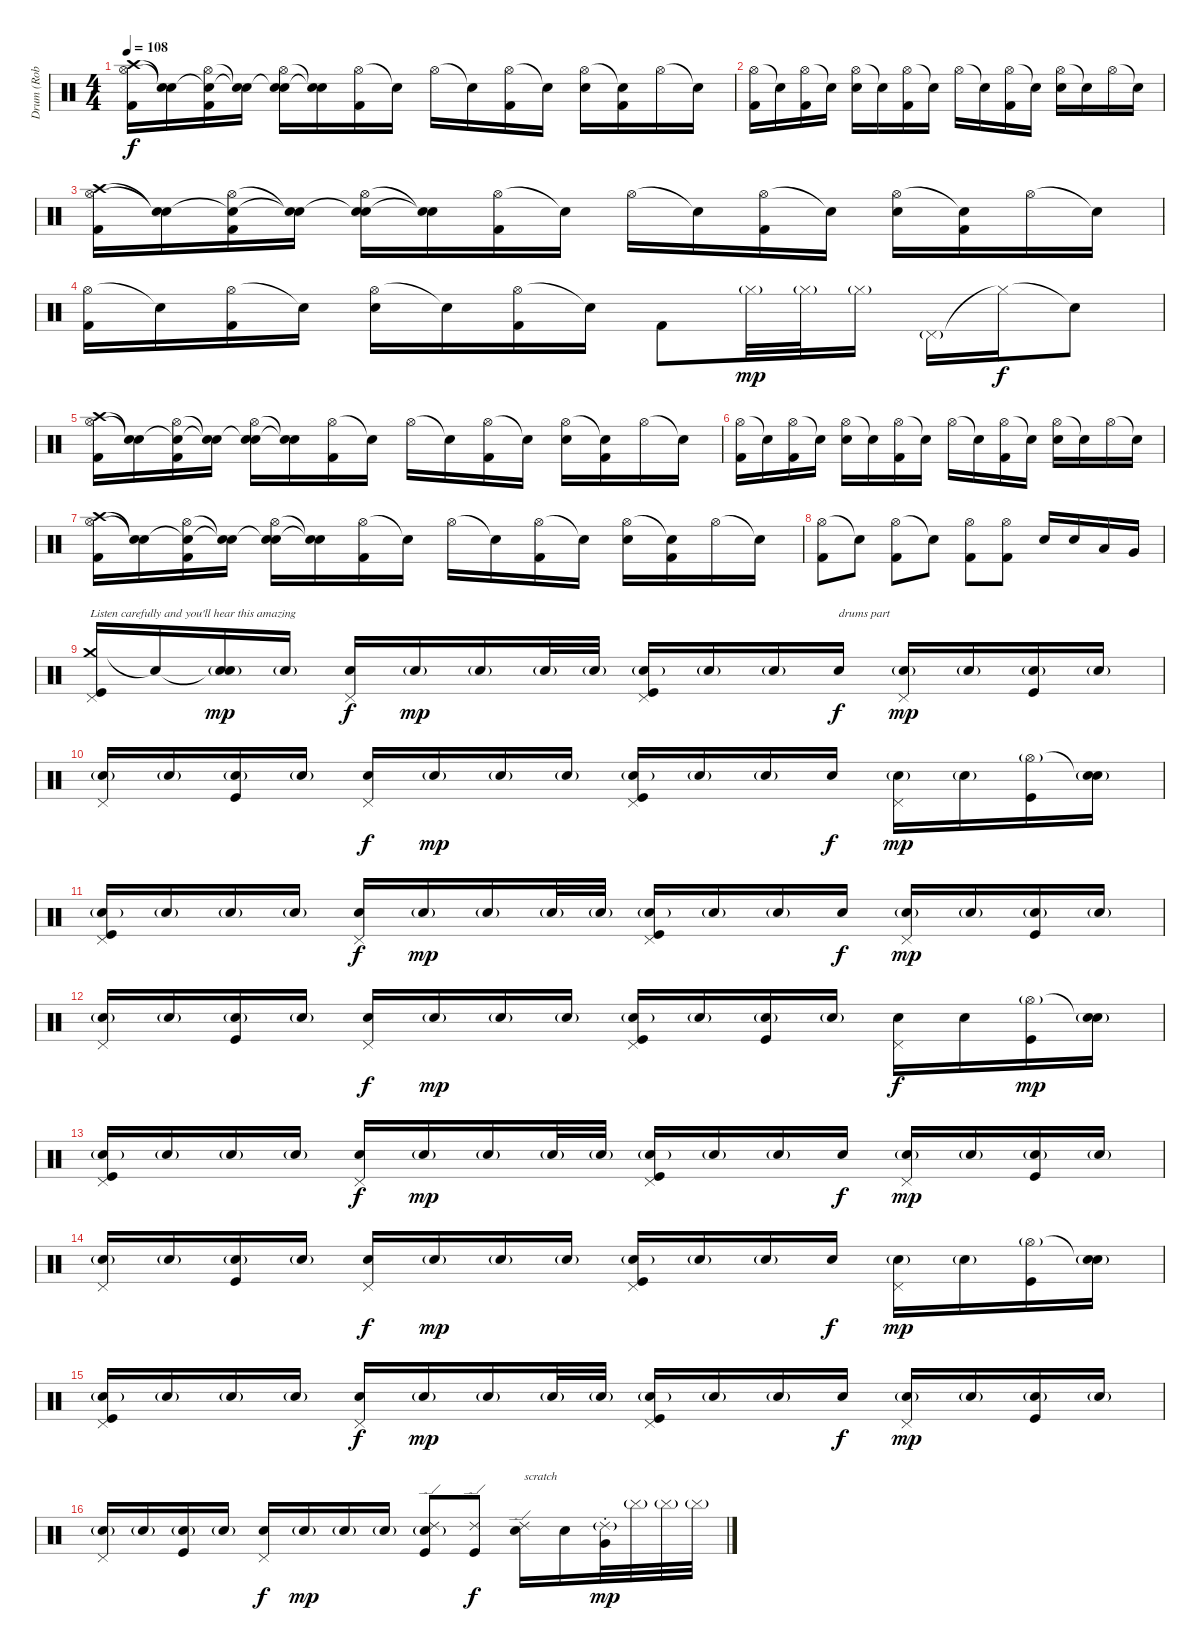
\track ("Drum (Rob Bourdon)" "Drum (Rob ") {instrument percussion}
\staff {score}
\articulation defaults
\ts (4 4)
\tempo 108
\clef neutral
\ks c
("Crash high (hit)" "Hi-Hat (open)" "Kick (hit) 2").16{dy f} ("Snare (hit)"{t} "Snare (hit)"{t}).16 ("Snare (hit)"{t} "Hi-Hat (open)" "Kick (hit) 2").16 ("Snare (hit)"{t} "Snare (hit)"{t}).16 ("Snare (hit)"{t} "Hi-Hat (open)" "Electric Snare (hit)").16 ("Snare (hit)"{t} "Snare (hit)"{t}).16 ("Hi-Hat (open)" "Kick (hit) 2").16 "Snare (hit)"{t}.16 "Hi-Hat (open)".16 "Snare (hit)"{t}.16 ("Hi-Hat (open)" "Kick (hit) 2").16 "Snare (hit)"{t}.16 ("Hi-Hat (open)" "Electric Snare (hit)").16 ("Snare (hit)"{t} "Kick (hit) 2").16 "Hi-Hat (open)".16 "Snare (hit)"{t}.16 |
("Hi-Hat (open)" "Kick (hit) 2").16 "Snare (hit)"{t}.16 ("Hi-Hat (open)" "Kick (hit) 2").16 "Snare (hit)"{t}.16 ("Hi-Hat (open)" "Electric Snare (hit)").16 "Snare (hit)"{t}.16 ("Hi-Hat (open)" "Kick (hit) 2").16 "Snare (hit)"{t}.16 "Hi-Hat (open)".16 "Snare (hit)"{t}.16 ("Hi-Hat (open)" "Kick (hit) 2").16 "Snare (hit)"{t}.16 ("Hi-Hat (open)" "Electric Snare (hit)").16 "Snare (hit)"{t}.16 "Hi-Hat (open)".16 "Snare (hit)"{t}.16 |
("Crash high (hit)" "Hi-Hat (open)" "Kick (hit) 2").16 ("Snare (hit)"{t} "Snare (hit)"{t}).16 ("Snare (hit)"{t} "Hi-Hat (open)" "Kick (hit) 2").16 ("Snare (hit)"{t} "Snare (hit)"{t}).16 ("Snare (hit)"{t} "Hi-Hat (open)" "Electric Snare (hit)").16 ("Snare (hit)"{t} "Snare (hit)"{t}).16 ("Hi-Hat (open)" "Kick (hit) 2").16 "Snare (hit)"{t}.16 "Hi-Hat (open)".16 "Snare (hit)"{t}.16 ("Hi-Hat (open)" "Kick (hit) 2").16 "Snare (hit)"{t}.16 ("Hi-Hat (open)" "Electric Snare (hit)").16 ("Snare (hit)"{t} "Kick (hit) 2").16 "Hi-Hat (open)".16 "Snare (hit)"{t}.16 |
("Hi-Hat (open)" "Kick (hit) 2").16 "Snare (hit)"{t}.16 ("Hi-Hat (open)" "Kick (hit) 2").16 "Snare (hit)"{t}.16 ("Hi-Hat (open)" "Electric Snare (hit)").16 "Snare (hit)"{t}.16 ("Hi-Hat (open)" "Kick (hit) 2").16 "Snare (hit)"{t}.16 "Kick (hit) 2".8 "Hi-Hat (closed)"{g}.32{dy mp} "Hi-Hat (closed)"{g}.32 "Hi-Hat (closed)"{g}.16 "Pedal Hi-Hat (hit)"{g}.16 "Hi-Hat (closed)"{t}.16{dy f} "Snare (hit)"{t}.8 |
("Crash high (hit)" "Hi-Hat (open)" "Kick (hit) 2").16 ("Snare (hit)"{t} "Snare (hit)"{t}).16 ("Snare (hit)"{t} "Hi-Hat (open)" "Kick (hit) 2").16 ("Snare (hit)"{t} "Snare (hit)"{t}).16 ("Snare (hit)"{t} "Hi-Hat (open)" "Electric Snare (hit)").16 ("Snare (hit)"{t} "Snare (hit)"{t}).16 ("Hi-Hat (open)" "Kick (hit) 2").16 "Snare (hit)"{t}.16 "Hi-Hat (open)".16 "Snare (hit)"{t}.16 ("Hi-Hat (open)" "Kick (hit) 2").16 "Snare (hit)"{t}.16 ("Hi-Hat (open)" "Electric Snare (hit)").16 ("Snare (hit)"{t} "Kick (hit) 2").16 "Hi-Hat (open)".16 "Snare (hit)"{t}.16 |
("Hi-Hat (open)" "Kick (hit) 2").16 "Snare (hit)"{t}.16 ("Hi-Hat (open)" "Kick (hit) 2").16 "Snare (hit)"{t}.16 ("Hi-Hat (open)" "Electric Snare (hit)").16 "Snare (hit)"{t}.16 ("Hi-Hat (open)" "Kick (hit) 2").16 "Snare (hit)"{t}.16 "Hi-Hat (open)".16 "Snare (hit)"{t}.16 ("Hi-Hat (open)" "Kick (hit) 2").16 "Snare (hit)"{t}.16 ("Hi-Hat (open)" "Electric Snare (hit)").16 "Snare (hit)"{t}.16 "Hi-Hat (open)".16 "Snare (hit)"{t}.16 |
("Crash high (hit)" "Hi-Hat (open)" "Kick (hit) 2").16 ("Snare (hit)"{t} "Snare (hit)"{t}).16 ("Snare (hit)"{t} "Hi-Hat (open)" "Kick (hit) 2").16 ("Snare (hit)"{t} "Snare (hit)"{t}).16 ("Snare (hit)"{t} "Hi-Hat (open)" "Electric Snare (hit)").16 ("Snare (hit)"{t} "Snare (hit)"{t}).16 ("Hi-Hat (open)" "Kick (hit) 2").16 "Snare (hit)"{t}.16 "Hi-Hat (open)".16 "Snare (hit)"{t}.16 ("Hi-Hat (open)" "Kick (hit) 2").16 "Snare (hit)"{t}.16 ("Hi-Hat (open)" "Electric Snare (hit)").16 ("Snare (hit)"{t} "Kick (hit) 2").16 "Hi-Hat (open)".16 "Snare (hit)"{t}.16 |
("Hi-Hat (open)" "Kick (hit) 2").8 "Snare (hit)"{t}.8 ("Hi-Hat (open)" "Kick (hit) 2").8 "Snare (hit)"{t}.8 ("Hi-Hat (open)" "Kick (hit) 2").8 ("Hi-Hat (open)" "Kick (hit) 2").8 "Electric Snare (hit)".16 "Electric Snare (hit)".16 "Low Tom (hit)".16 "Very Low Tom (hit)".16 |
("Crash medium (hit)" "Pedal Hi-Hat (hit)" "Kick (hit)").16{txt "Listen carefully and you'll hear this amazing" volume 13} "Snare (hit)"{t}.16 ("Snare (hit)"{t} "Snare (hit) 2"{g}).16{dy mp volume 6} "Snare (hit) 2"{g}.16 ("Pedal Hi-Hat (hit)" "Electric Snare (hit)").16{dy f volume 13} "Snare (hit) 2"{g}.16{dy mp volume 6} "Snare (hit) 2"{g}.16 "Snare (hit) 2"{g}.32 "Snare (hit) 2"{g}.32 ("Pedal Hi-Hat (hit)" "Snare (hit) 2"{g} "Kick (hit)").16{volume 13} "Snare (hit) 2"{g}.16{volume 6} "Snare (hit) 2"{g}.16 "Electric Snare (hit)".16{txt "drums part" dy f volume 13} ("Pedal Hi-Hat (hit)" "Snare (hit) 2"{g}).16{dy mp volume 6} "Snare (hit) 2"{g}.16 ("Snare (hit) 2"{g} "Kick (hit)").16{volume 13} "Snare (hit) 2"{g}.16{volume 6} |
("Pedal Hi-Hat (hit)" "Snare (hit) 2"{g}).16{volume 6} "Snare (hit) 2"{g}.16 ("Snare (hit) 2"{g} "Kick (hit)").16{volume 13} "Snare (hit) 2"{g}.16{volume 6} ("Pedal Hi-Hat (hit)" "Electric Snare (hit)").16{dy f volume 13} "Snare (hit) 2"{g}.16{dy mp volume 6} "Snare (hit) 2"{g}.16 "Snare (hit) 2"{g}.16 ("Pedal Hi-Hat (hit)" "Snare (hit) 2"{g} "Kick (hit)").16{volume 13} "Snare (hit) 2"{g}.16{volume 6} "Snare (hit) 2"{g}.16 "Electric Snare (hit)".16{dy f volume 13} ("Pedal Hi-Hat (hit)" "Snare (hit) 2"{g}).16{dy mp volume 6} "Snare (hit) 2"{g}.16 ("Hi-Hat (open)"{g} "Kick (hit)").16{volume 13} ("Snare (hit)"{t} "Snare (hit) 2"{g}).16{volume 6} |
("Pedal Hi-Hat (hit)" "Snare (hit) 2"{g} "Kick (hit)").16{volume 13} "Snare (hit) 2"{g}.16{volume 6} "Snare (hit) 2"{g}.16 "Snare (hit) 2"{g}.16 ("Pedal Hi-Hat (hit)" "Electric Snare (hit)").16{dy f volume 13} "Snare (hit) 2"{g}.16{dy mp volume 6} "Snare (hit) 2"{g}.16 "Snare (hit) 2"{g}.32 "Snare (hit) 2"{g}.32 ("Pedal Hi-Hat (hit)" "Snare (hit) 2"{g} "Kick (hit)").16{volume 13} "Snare (hit) 2"{g}.16{volume 6} "Snare (hit) 2"{g}.16 "Electric Snare (hit)".16{dy f volume 13} ("Pedal Hi-Hat (hit)" "Snare (hit) 2"{g}).16{dy mp volume 6} "Snare (hit) 2"{g}.16 ("Snare (hit) 2"{g} "Kick (hit)").16{volume 13} "Snare (hit) 2"{g}.16{volume 6} |
("Pedal Hi-Hat (hit)" "Snare (hit) 2"{g}).16{volume 6} "Snare (hit) 2"{g}.16 ("Snare (hit) 2"{g} "Kick (hit)").16{volume 13} "Snare (hit) 2"{g}.16{volume 6} ("Pedal Hi-Hat (hit)" "Electric Snare (hit)").16{dy f volume 13} "Snare (hit) 2"{g}.16{dy mp volume 6} "Snare (hit) 2"{g}.16 "Snare (hit) 2"{g}.16 ("Pedal Hi-Hat (hit)" "Snare (hit) 2"{g} "Kick (hit)").16{volume 13} "Snare (hit) 2"{g}.16{volume 6} ("Snare (hit) 2"{g} "Kick (hit)").16{volume 13} "Snare (hit) 2"{g}.16{volume 6} ("Pedal Hi-Hat (hit)" "Electric Snare (hit)").16{dy f volume 13} "Electric Snare (hit)".16 ("Hi-Hat (open)"{g} "Kick (hit)").16{dy mp volume 13} ("Snare (hit)"{t} "Snare (hit) 2"{g}).16{volume 6} |
("Pedal Hi-Hat (hit)" "Snare (hit) 2"{g} "Kick (hit)").16{volume 13} "Snare (hit) 2"{g}.16{volume 6} "Snare (hit) 2"{g}.16 "Snare (hit) 2"{g}.16 ("Pedal Hi-Hat (hit)" "Electric Snare (hit)").16{dy f volume 13} "Snare (hit) 2"{g}.16{dy mp volume 6} "Snare (hit) 2"{g}.16 "Snare (hit) 2"{g}.32 "Snare (hit) 2"{g}.32 ("Pedal Hi-Hat (hit)" "Snare (hit) 2"{g} "Kick (hit)").16{volume 13} "Snare (hit) 2"{g}.16{volume 6} "Snare (hit) 2"{g}.16 "Electric Snare (hit)".16{dy f volume 13} ("Pedal Hi-Hat (hit)" "Snare (hit) 2"{g}).16{dy mp volume 6} "Snare (hit) 2"{g}.16 ("Snare (hit) 2"{g} "Kick (hit)").16{volume 13} "Snare (hit) 2"{g}.16{volume 6} |
("Pedal Hi-Hat (hit)" "Snare (hit) 2"{g}).16{volume 6} "Snare (hit) 2"{g}.16 ("Snare (hit) 2"{g} "Kick (hit)").16{volume 13} "Snare (hit) 2"{g}.16{volume 6} ("Pedal Hi-Hat (hit)" "Electric Snare (hit)").16{dy f volume 13} "Snare (hit) 2"{g}.16{dy mp volume 6} "Snare (hit) 2"{g}.16 "Snare (hit) 2"{g}.16 ("Pedal Hi-Hat (hit)" "Snare (hit) 2"{g} "Kick (hit)").16{volume 13} "Snare (hit) 2"{g}.16{volume 6} "Snare (hit) 2"{g}.16 "Electric Snare (hit)".16{dy f volume 13} ("Pedal Hi-Hat (hit)" "Snare (hit) 2"{g}).16{dy mp volume 6} "Snare (hit) 2"{g}.16 ("Hi-Hat (open)"{g} "Kick (hit)").16{volume 13} ("Snare (hit)"{t} "Snare (hit) 2"{g}).16{volume 6} |
("Pedal Hi-Hat (hit)" "Snare (hit) 2"{g} "Kick (hit)").16{volume 13} "Snare (hit) 2"{g}.16{volume 6} "Snare (hit) 2"{g}.16 "Snare (hit) 2"{g}.16 ("Pedal Hi-Hat (hit)" "Electric Snare (hit)").16{dy f volume 13} "Snare (hit) 2"{g}.16{dy mp volume 6} "Snare (hit) 2"{g}.16 "Snare (hit) 2"{g}.32 "Snare (hit) 2"{g}.32 ("Pedal Hi-Hat (hit)" "Snare (hit) 2"{g} "Kick (hit)").16{volume 13} "Snare (hit) 2"{g}.16{volume 6} "Snare (hit) 2"{g}.16 "Electric Snare (hit)".16{dy f volume 13} ("Pedal Hi-Hat (hit)" "Snare (hit) 2"{g}).16{dy mp volume 6} "Snare (hit) 2"{g}.16 ("Snare (hit) 2"{g} "Kick (hit)").16{volume 13} "Snare (hit) 2"{g}.16{volume 6} |
("Pedal Hi-Hat (hit)" "Snare (hit) 2"{g}).16{volume 6} "Snare (hit) 2"{g}.16 ("Snare (hit) 2"{g} "Kick (hit)").16{volume 13} "Snare (hit) 2"{g}.16{volume 6} ("Pedal Hi-Hat (hit)" "Electric Snare (hit)").16{dy f volume 13} "Snare (hit) 2"{g}.16{dy mp volume 6} "Snare (hit) 2"{g}.16 "Snare (hit) 2"{g}.16 ("Ride (edge) 2" "Snare (hit) 2"{g} "Kick (hit)").8{volume 13} ("Ride (edge) 2" "Kick (hit)").8{dy f} ("Ride (edge) 2" "Electric Snare (hit)").16{txt "scratch"} "Electric Snare (hit)".16 ("Ride (choke) 2"{g} "Very Low Tom (hit)").32{dy mp} "Cymbal (hit)"{g}.32 "Cymbal (hit)"{g}.32 "Cymbal (hit)"{g}.32
